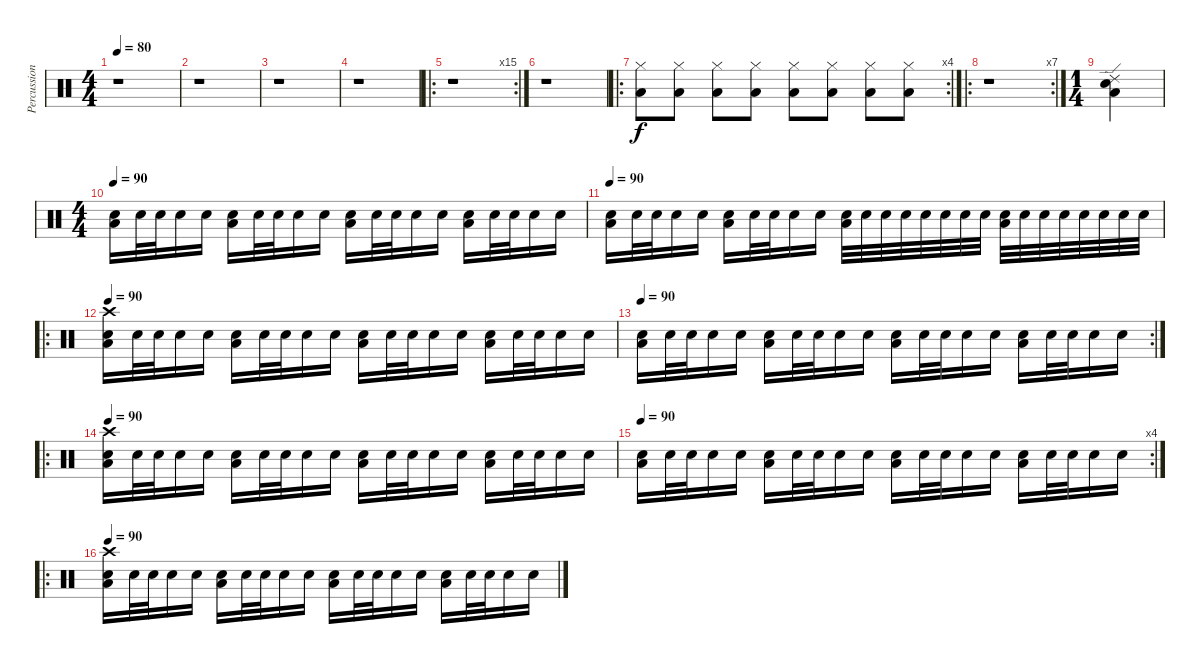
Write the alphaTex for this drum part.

\track ("Percussions" "Percussion") {instrument percussion}
\staff {score}
\articulation defaults
\ts (4 4)
\tempo 80
\clef neutral
\ks c
r.1{dy f} |
r.1 |
r.1 |
r.1 |
\ro
\rc 15
r.1 |
r.1 |
\ro
\rc 4
("Low Floor Tom (hit)" "Hi-Hat (closed)").8 ("Low Floor Tom (hit)" "Hi-Hat (closed)").8 ("Low Floor Tom (hit)" "Hi-Hat (closed)").8 ("Low Floor Tom (hit)" "Hi-Hat (closed)").8 ("Low Floor Tom (hit)" "Hi-Hat (closed)").8 ("Low Floor Tom (hit)" "Hi-Hat (closed)").8 ("Low Floor Tom (hit)" "Hi-Hat (closed)").8 ("Low Floor Tom (hit)" "Hi-Hat (closed)").8 |
\ro
\rc 7
r.1 |
\ts (1 4)
("Low Floor Tom (hit)" "Electric Snare (hit)" "Ride (edge) 2").4 |
\ts (4 4)
\tempo 90
("Low Floor Tom (hit)" "Electric Snare (hit)").16 "Electric Snare (hit)".32 "Electric Snare (hit)".32 "Electric Snare (hit)".16 "Electric Snare (hit)".16 ("Low Floor Tom (hit)" "Electric Snare (hit)").16 "Electric Snare (hit)".32 "Electric Snare (hit)".32 "Electric Snare (hit)".16 "Electric Snare (hit)".16 ("Low Floor Tom (hit)" "Electric Snare (hit)").16 "Electric Snare (hit)".32 "Electric Snare (hit)".32 "Electric Snare (hit)".16 "Electric Snare (hit)".16 ("Low Floor Tom (hit)" "Electric Snare (hit)").16 "Electric Snare (hit)".32 "Electric Snare (hit)".32 "Electric Snare (hit)".16 "Electric Snare (hit)".16 |
\tempo 90
("Low Floor Tom (hit)" "Electric Snare (hit)").16 "Electric Snare (hit)".32 "Electric Snare (hit)".32 "Electric Snare (hit)".16 "Electric Snare (hit)".16 ("Low Floor Tom (hit)" "Electric Snare (hit)").16 "Electric Snare (hit)".32 "Electric Snare (hit)".32 "Electric Snare (hit)".16 "Electric Snare (hit)".16 ("Low Floor Tom (hit)" "Electric Snare (hit)").32 "Electric Snare (hit)".32 "Electric Snare (hit)".32 "Electric Snare (hit)".32 "Electric Snare (hit)".32 "Electric Snare (hit)".32 "Electric Snare (hit)".32 "Electric Snare (hit)".32 ("Low Floor Tom (hit)" "Electric Snare (hit)").32 "Electric Snare (hit)".32 "Electric Snare (hit)".32 "Electric Snare (hit)".32 "Electric Snare (hit)".32 "Electric Snare (hit)".32 "Electric Snare (hit)".32 "Electric Snare (hit)".32 |
\ro
\tempo 90
("Low Floor Tom (hit)" "Electric Snare (hit)" "Crash high (hit)").16 "Electric Snare (hit)".32 "Electric Snare (hit)".32 "Electric Snare (hit)".16 "Electric Snare (hit)".16 ("Low Floor Tom (hit)" "Electric Snare (hit)").16 "Electric Snare (hit)".32 "Electric Snare (hit)".32 "Electric Snare (hit)".16 "Electric Snare (hit)".16 ("Low Floor Tom (hit)" "Electric Snare (hit)").16 "Electric Snare (hit)".32 "Electric Snare (hit)".32 "Electric Snare (hit)".16 "Electric Snare (hit)".16 ("Low Floor Tom (hit)" "Electric Snare (hit)").16 "Electric Snare (hit)".32 "Electric Snare (hit)".32 "Electric Snare (hit)".16 "Electric Snare (hit)".16 |
\rc 2
\tempo 90
("Low Floor Tom (hit)" "Electric Snare (hit)").16 "Electric Snare (hit)".32 "Electric Snare (hit)".32 "Electric Snare (hit)".16 "Electric Snare (hit)".16 ("Low Floor Tom (hit)" "Electric Snare (hit)").16 "Electric Snare (hit)".32 "Electric Snare (hit)".32 "Electric Snare (hit)".16 "Electric Snare (hit)".16 ("Low Floor Tom (hit)" "Electric Snare (hit)").16 "Electric Snare (hit)".32 "Electric Snare (hit)".32 "Electric Snare (hit)".16 "Electric Snare (hit)".16 ("Low Floor Tom (hit)" "Electric Snare (hit)").16 "Electric Snare (hit)".32 "Electric Snare (hit)".32 "Electric Snare (hit)".16 "Electric Snare (hit)".16 |
\ro
\tempo 90
("Low Floor Tom (hit)" "Electric Snare (hit)" "Crash high (hit)").16 "Electric Snare (hit)".32 "Electric Snare (hit)".32 "Electric Snare (hit)".16 "Electric Snare (hit)".16 ("Low Floor Tom (hit)" "Electric Snare (hit)").16 "Electric Snare (hit)".32 "Electric Snare (hit)".32 "Electric Snare (hit)".16 "Electric Snare (hit)".16 ("Low Floor Tom (hit)" "Electric Snare (hit)").16 "Electric Snare (hit)".32 "Electric Snare (hit)".32 "Electric Snare (hit)".16 "Electric Snare (hit)".16 ("Low Floor Tom (hit)" "Electric Snare (hit)").16 "Electric Snare (hit)".32 "Electric Snare (hit)".32 "Electric Snare (hit)".16 "Electric Snare (hit)".16 |
\rc 4
\tempo 90
("Low Floor Tom (hit)" "Electric Snare (hit)").16 "Electric Snare (hit)".32 "Electric Snare (hit)".32 "Electric Snare (hit)".16 "Electric Snare (hit)".16 ("Low Floor Tom (hit)" "Electric Snare (hit)").16 "Electric Snare (hit)".32 "Electric Snare (hit)".32 "Electric Snare (hit)".16 "Electric Snare (hit)".16 ("Low Floor Tom (hit)" "Electric Snare (hit)").16 "Electric Snare (hit)".32 "Electric Snare (hit)".32 "Electric Snare (hit)".16 "Electric Snare (hit)".16 ("Low Floor Tom (hit)" "Electric Snare (hit)").16 "Electric Snare (hit)".32 "Electric Snare (hit)".32 "Electric Snare (hit)".16 "Electric Snare (hit)".16 |
\ro
\tempo 90
("Low Floor Tom (hit)" "Electric Snare (hit)" "Crash high (hit)").16 "Electric Snare (hit)".32 "Electric Snare (hit)".32 "Electric Snare (hit)".16 "Electric Snare (hit)".16 ("Low Floor Tom (hit)" "Electric Snare (hit)").16 "Electric Snare (hit)".32 "Electric Snare (hit)".32 "Electric Snare (hit)".16 "Electric Snare (hit)".16 ("Low Floor Tom (hit)" "Electric Snare (hit)").16 "Electric Snare (hit)".32 "Electric Snare (hit)".32 "Electric Snare (hit)".16 "Electric Snare (hit)".16 ("Low Floor Tom (hit)" "Electric Snare (hit)").16 "Electric Snare (hit)".32 "Electric Snare (hit)".32 "Electric Snare (hit)".16 "Electric Snare (hit)".16
